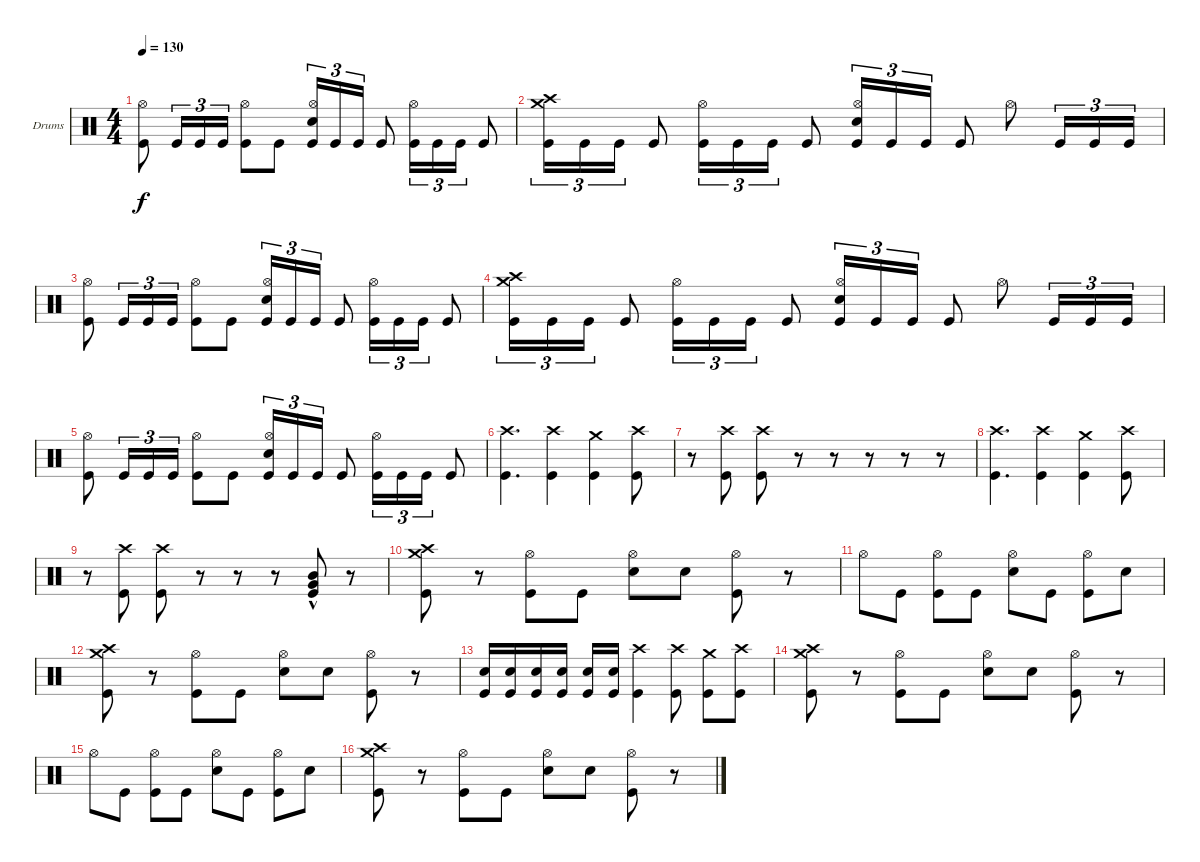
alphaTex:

\bracketExtendMode groupsimilarinstruments
\firstSystemTrackNameOrientation horizontal
\otherSystemsTrackNameOrientation horizontal
\track ("Drumkit" "Drums") {instrument percussion}
\staff {score}
\articulation defaults
\ts (4 4)
\tempo 130
\clef neutral
\scale
0.333333
\ks c
("Kick (hit)" "Hi-Hat (open)").8{dy f} "Kick (hit)".16{tu (3 2)} "Kick (hit)".16{tu (3 2)} "Kick (hit)".16{tu (3 2)} ("Kick (hit)" "Hi-Hat (open)").8 "Kick (hit)".8 ("Hi-Hat (open)" "Kick (hit)" "Snare (hit) 2").16{tu (3 2)} "Kick (hit)".16{tu (3 2)} "Kick (hit)".16{tu (3 2)} "Kick (hit)".8 ("Kick (hit)" "Hi-Hat (open)").16{tu (3 2)} "Kick (hit)".16{tu (3 2)} "Kick (hit)".16{tu (3 2)} "Kick (hit)".8 |
\scale
0.333333 ("Kick (hit)" "Crash high (hit)" "Crash medium (hit)").16{tu (3 2)} "Kick (hit)".16{tu (3 2)} "Kick (hit)".16{tu (3 2)} "Kick (hit)".8 ("Kick (hit)" "Hi-Hat (open)").16{tu (3 2)} "Kick (hit)".16{tu (3 2)} "Kick (hit)".16{tu (3 2)} "Kick (hit)".8 ("Kick (hit)" "Hi-Hat (open)" "Snare (hit) 2").16{tu (3 2)} "Kick (hit)".16{tu (3 2)} "Kick (hit)".16{tu (3 2)} "Kick (hit)".8 "Hi-Hat (open)".8 "Kick (hit)".16{tu (3 2)} "Kick (hit)".16{tu (3 2)} "Kick (hit)".16{tu (3 2)} |
\scale
0.333333 ("Kick (hit)" "Hi-Hat (open)").8 "Kick (hit)".16{tu (3 2)} "Kick (hit)".16{tu (3 2)} "Kick (hit)".16{tu (3 2)} ("Kick (hit)" "Hi-Hat (open)").8 "Kick (hit)".8 ("Hi-Hat (open)" "Kick (hit)" "Snare (hit) 2").16{tu (3 2)} "Kick (hit)".16{tu (3 2)} "Kick (hit)".16{tu (3 2)} "Kick (hit)".8 ("Kick (hit)" "Hi-Hat (open)").16{tu (3 2)} "Kick (hit)".16{tu (3 2)} "Kick (hit)".16{tu (3 2)} "Kick (hit)".8 |
\scale
0.333333 ("Kick (hit)" "Crash high (hit)" "Crash medium (hit)").16{tu (3 2)} "Kick (hit)".16{tu (3 2)} "Kick (hit)".16{tu (3 2)} "Kick (hit)".8 ("Kick (hit)" "Hi-Hat (open)").16{tu (3 2)} "Kick (hit)".16{tu (3 2)} "Kick (hit)".16{tu (3 2)} "Kick (hit)".8 ("Kick (hit)" "Hi-Hat (open)" "Snare (hit) 2").16{tu (3 2)} "Kick (hit)".16{tu (3 2)} "Kick (hit)".16{tu (3 2)} "Kick (hit)".8 "Hi-Hat (open)".8 "Kick (hit)".16{tu (3 2)} "Kick (hit)".16{tu (3 2)} "Kick (hit)".16{tu (3 2)} |
\scale
0.333333 ("Kick (hit)" "Hi-Hat (open)").8 "Kick (hit)".16{tu (3 2)} "Kick (hit)".16{tu (3 2)} "Kick (hit)".16{tu (3 2)} ("Kick (hit)" "Hi-Hat (open)").8 "Kick (hit)".8 ("Hi-Hat (open)" "Kick (hit)" "Snare (hit) 2").16{tu (3 2)} "Kick (hit)".16{tu (3 2)} "Kick (hit)".16{tu (3 2)} "Kick (hit)".8 ("Kick (hit)" "Hi-Hat (open)").16{tu (3 2)} "Kick (hit)".16{tu (3 2)} "Kick (hit)".16{tu (3 2)} "Kick (hit)".8 |
\scale
0.333333 ("Kick (hit)" "Crash high (hit)").4{d} ("Kick (hit)" "Crash high (hit)").4 ("Kick (hit)" "Crash medium (hit)").4 ("Crash high (hit)" "Kick (hit)").8 |
r.8 ("Kick (hit)" "Crash high (hit)").8 ("Kick (hit)" "Crash high (hit)").8 r.8 r.8 r.8 r.8 r.8 |
("Kick (hit)" "Crash high (hit)").4{d} ("Kick (hit)" "Crash high (hit)").4 ("Kick (hit)" "Crash medium (hit)").4 ("Crash high (hit)" "Kick (hit)").8 |
\scale
0.361277 r.8 ("Kick (hit)" "Crash high (hit)").8 ("Kick (hit)" "Crash high (hit)").8 r.8 r.8 r.8 ("Mid Tom (hit)"{hac} "Very Low Tom (hit)"{hac} "Kick (hit)").8 r.8 |
\scale
0.319361 ("Kick (hit)" "Crash high (hit)" "Crash medium (hit)").8 r.8 ("Kick (hit)" "Hi-Hat (open)").8 "Kick (hit)".8 ("Snare (hit) 2" "Hi-Hat (open)").8 "Snare (hit) 2".8 ("Kick (hit)" "Hi-Hat (open)").8 r.8 |
\scale
0.319361 "Hi-Hat (open)".8 "Kick (hit)".8 ("Kick (hit)" "Hi-Hat (open)").8 "Kick (hit)".8 ("Snare (hit) 2" "Hi-Hat (open)").8 "Kick (hit)".8 ("Kick (hit)" "Hi-Hat (open)").8 "Snare (hit) 2".8 |
("Kick (hit)" "Crash high (hit)" "Crash medium (hit)").8 r.8 ("Kick (hit)" "Hi-Hat (open)").8 "Kick (hit)".8 ("Snare (hit) 2" "Hi-Hat (open)").8 "Snare (hit) 2".8 ("Kick (hit)" "Hi-Hat (open)").8 r.8 |
("Snare (hit) 2" "Kick (hit)").16 ("Snare (hit) 2" "Kick (hit)").16 ("Snare (hit) 2" "Kick (hit)").16 ("Snare (hit) 2" "Kick (hit)").16 ("Snare (hit) 2" "Kick (hit)").16 ("Snare (hit) 2" "Kick (hit)").16 ("Kick (hit)" "Crash high (hit)").4 ("Kick (hit)" "Crash high (hit)").8 ("Crash medium (hit)" "Kick (hit)").8 ("Crash high (hit)" "Kick (hit)").8 |
("Kick (hit)" "Crash high (hit)" "Crash medium (hit)").8 r.8 ("Kick (hit)" "Hi-Hat (open)").8 "Kick (hit)".8 ("Snare (hit) 2" "Hi-Hat (open)").8 "Snare (hit) 2".8 ("Kick (hit)" "Hi-Hat (open)").8 r.8 |
"Hi-Hat (open)".8 "Kick (hit)".8 ("Kick (hit)" "Hi-Hat (open)").8 "Kick (hit)".8 ("Snare (hit) 2" "Hi-Hat (open)").8 "Kick (hit)".8 ("Kick (hit)" "Hi-Hat (open)").8 "Snare (hit) 2".8 |
("Kick (hit)" "Crash high (hit)" "Crash medium (hit)").8 r.8 ("Kick (hit)" "Hi-Hat (open)").8 "Kick (hit)".8 ("Snare (hit) 2" "Hi-Hat (open)").8 "Snare (hit) 2".8 ("Kick (hit)" "Hi-Hat (open)").8 r.8
